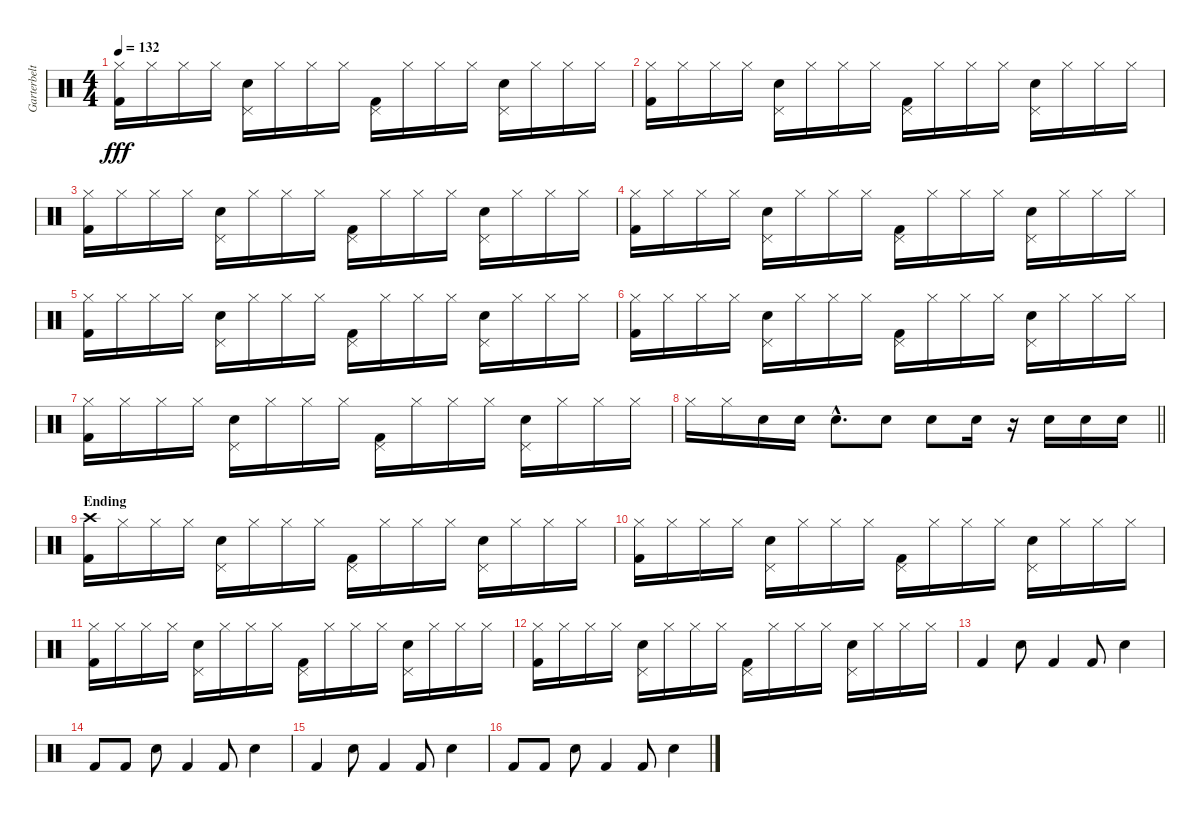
\track ("Garterbelt" "Garterbelt") {instrument percussion}
\staff {score}
\articulation defaults
\ts (4 4)
\tempo 132
\clef neutral
\ks c
("Hi-Hat (closed)" "Kick (hit) 2").16{dy fff} "Hi-Hat (closed)".16 "Hi-Hat (closed)".16 "Hi-Hat (closed)".16 ("Pedal Hi-Hat (hit)" "Hand Clap (hit)").16 "Hi-Hat (closed)".16 "Hi-Hat (closed)".16 "Hi-Hat (closed)".16 ("Pedal Hi-Hat (hit)" "Kick (hit) 2").16 "Hi-Hat (closed)".16 "Hi-Hat (closed)".16 "Hi-Hat (closed)".16 ("Pedal Hi-Hat (hit)" "Hand Clap (hit)").16 "Hi-Hat (closed)".16 "Hi-Hat (closed)".16 "Hi-Hat (closed)".16 |
("Hi-Hat (closed)" "Kick (hit) 2").16 "Hi-Hat (closed)".16 "Hi-Hat (closed)".16 "Hi-Hat (closed)".16 ("Pedal Hi-Hat (hit)" "Hand Clap (hit)").16 "Hi-Hat (closed)".16 "Hi-Hat (closed)".16 "Hi-Hat (closed)".16 ("Pedal Hi-Hat (hit)" "Kick (hit) 2").16 "Hi-Hat (closed)".16 "Hi-Hat (closed)".16 "Hi-Hat (closed)".16 ("Pedal Hi-Hat (hit)" "Hand Clap (hit)").16 "Hi-Hat (closed)".16 "Hi-Hat (closed)".16 "Hi-Hat (closed)".16 |
("Hi-Hat (closed)" "Kick (hit) 2").16 "Hi-Hat (closed)".16 "Hi-Hat (closed)".16 "Hi-Hat (closed)".16 ("Pedal Hi-Hat (hit)" "Hand Clap (hit)").16 "Hi-Hat (closed)".16 "Hi-Hat (closed)".16 "Hi-Hat (closed)".16 ("Pedal Hi-Hat (hit)" "Kick (hit) 2").16 "Hi-Hat (closed)".16 "Hi-Hat (closed)".16 "Hi-Hat (closed)".16 ("Pedal Hi-Hat (hit)" "Hand Clap (hit)").16 "Hi-Hat (closed)".16 "Hi-Hat (closed)".16 "Hi-Hat (closed)".16 |
("Hi-Hat (closed)" "Kick (hit) 2").16 "Hi-Hat (closed)".16 "Hi-Hat (closed)".16 "Hi-Hat (closed)".16 ("Pedal Hi-Hat (hit)" "Hand Clap (hit)").16 "Hi-Hat (closed)".16 "Hi-Hat (closed)".16 "Hi-Hat (closed)".16 ("Pedal Hi-Hat (hit)" "Kick (hit) 2").16 "Hi-Hat (closed)".16 "Hi-Hat (closed)".16 "Hi-Hat (closed)".16 ("Pedal Hi-Hat (hit)" "Hand Clap (hit)").16 "Hi-Hat (closed)".16 "Hi-Hat (closed)".16 "Hi-Hat (closed)".16 |
("Hi-Hat (closed)" "Kick (hit) 2").16 "Hi-Hat (closed)".16 "Hi-Hat (closed)".16 "Hi-Hat (closed)".16 ("Pedal Hi-Hat (hit)" "Hand Clap (hit)").16 "Hi-Hat (closed)".16 "Hi-Hat (closed)".16 "Hi-Hat (closed)".16 ("Pedal Hi-Hat (hit)" "Kick (hit) 2").16 "Hi-Hat (closed)".16 "Hi-Hat (closed)".16 "Hi-Hat (closed)".16 ("Pedal Hi-Hat (hit)" "Hand Clap (hit)").16 "Hi-Hat (closed)".16 "Hi-Hat (closed)".16 "Hi-Hat (closed)".16 |
("Hi-Hat (closed)" "Kick (hit) 2").16 "Hi-Hat (closed)".16 "Hi-Hat (closed)".16 "Hi-Hat (closed)".16 ("Pedal Hi-Hat (hit)" "Hand Clap (hit)").16 "Hi-Hat (closed)".16 "Hi-Hat (closed)".16 "Hi-Hat (closed)".16 ("Pedal Hi-Hat (hit)" "Kick (hit) 2").16 "Hi-Hat (closed)".16 "Hi-Hat (closed)".16 "Hi-Hat (closed)".16 ("Pedal Hi-Hat (hit)" "Hand Clap (hit)").16 "Hi-Hat (closed)".16 "Hi-Hat (closed)".16 "Hi-Hat (closed)".16 |
("Hi-Hat (closed)" "Kick (hit) 2").16 "Hi-Hat (closed)".16 "Hi-Hat (closed)".16 "Hi-Hat (closed)".16 ("Pedal Hi-Hat (hit)" "Hand Clap (hit)").16 "Hi-Hat (closed)".16 "Hi-Hat (closed)".16 "Hi-Hat (closed)".16 ("Pedal Hi-Hat (hit)" "Kick (hit) 2").16 "Hi-Hat (closed)".16 "Hi-Hat (closed)".16 "Hi-Hat (closed)".16 ("Pedal Hi-Hat (hit)" "Hand Clap (hit)").16 "Hi-Hat (closed)".16 "Hi-Hat (closed)".16 "Hi-Hat (closed)".16 |
\barLineRight lightlight "Hi-Hat (closed)".16 "Hi-Hat (closed)".16 "Hand Clap (hit)".16 "Hand Clap (hit)".16 "Hand Clap (hit)"{hac}.8{d} "Hand Clap (hit)".8 "Hand Clap (hit)".8 "Hand Clap (hit)".16
r.16 "Hand Clap (hit)".16 "Hand Clap (hit)".16 "Hand Clap (hit)".16 |
\section ("" "Ending")
("Crash high (hit)" "Kick (hit) 2").16 "Hi-Hat (closed)".16 "Hi-Hat (closed)".16 "Hi-Hat (closed)".16 ("Pedal Hi-Hat (hit)" "Hand Clap (hit)").16 "Hi-Hat (closed)".16 "Hi-Hat (closed)".16 "Hi-Hat (closed)".16 ("Pedal Hi-Hat (hit)" "Kick (hit) 2").16 "Hi-Hat (closed)".16 "Hi-Hat (closed)".16 "Hi-Hat (closed)".16 ("Pedal Hi-Hat (hit)" "Hand Clap (hit)").16 "Hi-Hat (closed)".16 "Hi-Hat (closed)".16 "Hi-Hat (closed)".16 |
("Hi-Hat (closed)" "Kick (hit) 2").16 "Hi-Hat (closed)".16 "Hi-Hat (closed)".16 "Hi-Hat (closed)".16 ("Pedal Hi-Hat (hit)" "Hand Clap (hit)").16 "Hi-Hat (closed)".16 "Hi-Hat (closed)".16 "Hi-Hat (closed)".16 ("Pedal Hi-Hat (hit)" "Kick (hit) 2").16 "Hi-Hat (closed)".16 "Hi-Hat (closed)".16 "Hi-Hat (closed)".16 ("Pedal Hi-Hat (hit)" "Hand Clap (hit)").16 "Hi-Hat (closed)".16 "Hi-Hat (closed)".16 "Hi-Hat (closed)".16 |
("Hi-Hat (closed)" "Kick (hit) 2").16 "Hi-Hat (closed)".16 "Hi-Hat (closed)".16 "Hi-Hat (closed)".16 ("Pedal Hi-Hat (hit)" "Hand Clap (hit)").16 "Hi-Hat (closed)".16 "Hi-Hat (closed)".16 "Hi-Hat (closed)".16 ("Pedal Hi-Hat (hit)" "Kick (hit) 2").16 "Hi-Hat (closed)".16 "Hi-Hat (closed)".16 "Hi-Hat (closed)".16 ("Pedal Hi-Hat (hit)" "Hand Clap (hit)").16 "Hi-Hat (closed)".16 "Hi-Hat (closed)".16 "Hi-Hat (closed)".16 |
("Hi-Hat (closed)" "Kick (hit) 2").16 "Hi-Hat (closed)".16 "Hi-Hat (closed)".16 "Hi-Hat (closed)".16 ("Pedal Hi-Hat (hit)" "Hand Clap (hit)").16 "Hi-Hat (closed)".16 "Hi-Hat (closed)".16 "Hi-Hat (closed)".16 ("Pedal Hi-Hat (hit)" "Kick (hit) 2").16 "Hi-Hat (closed)".16 "Hi-Hat (closed)".16 "Hi-Hat (closed)".16 ("Pedal Hi-Hat (hit)" "Hand Clap (hit)").16 "Hi-Hat (closed)".16 "Hi-Hat (closed)".16 "Hi-Hat (closed)".16 |
"Kick (hit) 2".4 "Hand Clap (hit)".8 "Kick (hit) 2".4 "Kick (hit) 2".8 "Hand Clap (hit)".4 |
"Kick (hit) 2".8 "Kick (hit) 2".8 "Hand Clap (hit)".8 "Kick (hit) 2".4 "Kick (hit) 2".8 "Hand Clap (hit)".4 |
"Kick (hit) 2".4 "Hand Clap (hit)".8 "Kick (hit) 2".4 "Kick (hit) 2".8 "Hand Clap (hit)".4 |
"Kick (hit) 2".8 "Kick (hit) 2".8 "Hand Clap (hit)".8 "Kick (hit) 2".4 "Kick (hit) 2".8 "Hand Clap (hit)".4
